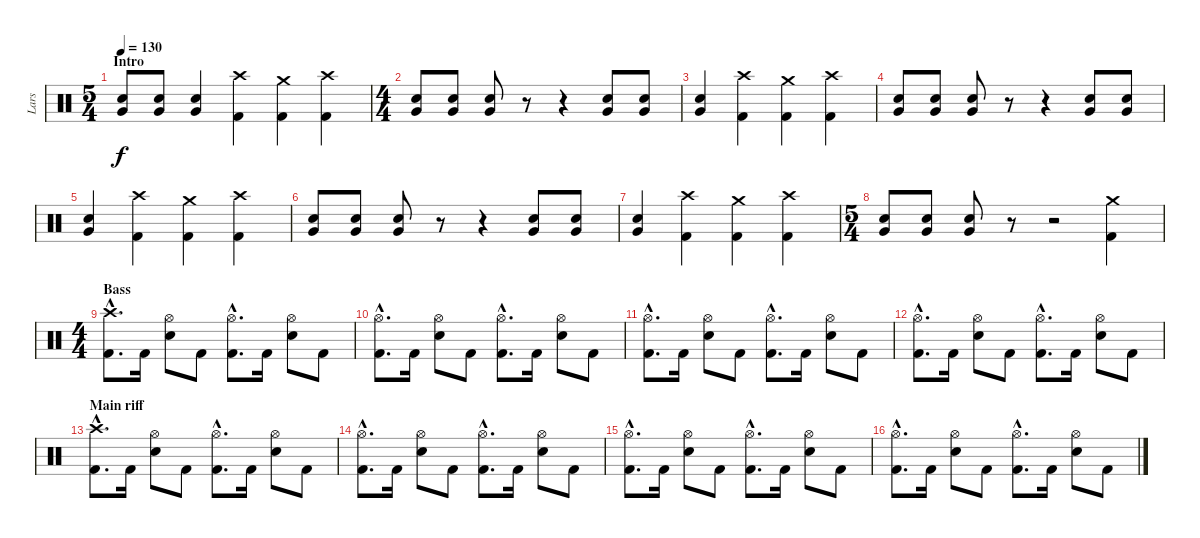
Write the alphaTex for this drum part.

\track ("Lars" "Lars") {instrument percussion}
\staff {score}
\articulation defaults
\ts (5 4)
\section ("" "Intro")
\tempo 130
\clef neutral
\ks c
("Electric Snare (hit)" "Very Low Tom (hit)").8{bu 120 dy f} ("Electric Snare (hit)" "Very Low Tom (hit)").8{bu 120} ("Electric Snare (hit)" "Very Low Tom (hit)").4 ("Kick (hit) 2" "Crash high (hit)").4 ("Kick (hit) 2" "Crash medium (hit)").4 ("Kick (hit) 2" "Crash high (hit)").4 |
\ts (4 4)
("Electric Snare (hit)" "Very Low Tom (hit)").8{bu 120} ("Electric Snare (hit)" "Very Low Tom (hit)").8{bu 120} ("Electric Snare (hit)" "Very Low Tom (hit)").8{bu 120} r.8 r.4 ("Electric Snare (hit)" "Very Low Tom (hit)").8{bu 120} ("Electric Snare (hit)" "Very Low Tom (hit)").8{bu 120} |
("Electric Snare (hit)" "Very Low Tom (hit)").4 ("Kick (hit) 2" "Crash high (hit)").4 ("Kick (hit) 2" "Crash medium (hit)").4 ("Kick (hit) 2" "Crash high (hit)").4 |
("Electric Snare (hit)" "Very Low Tom (hit)").8{bu 120} ("Electric Snare (hit)" "Very Low Tom (hit)").8{bu 120} ("Electric Snare (hit)" "Very Low Tom (hit)").8{bu 120} r.8 r.4 ("Electric Snare (hit)" "Very Low Tom (hit)").8{bu 120} ("Electric Snare (hit)" "Very Low Tom (hit)").8{bu 120} |
("Electric Snare (hit)" "Very Low Tom (hit)").4 ("Kick (hit) 2" "Crash high (hit)").4 ("Kick (hit) 2" "Crash medium (hit)").4 ("Kick (hit) 2" "Crash high (hit)").4 |
("Electric Snare (hit)" "Very Low Tom (hit)").8{bu 120} ("Electric Snare (hit)" "Very Low Tom (hit)").8{bu 120} ("Electric Snare (hit)" "Very Low Tom (hit)").8{bu 120} r.8 r.4 ("Electric Snare (hit)" "Very Low Tom (hit)").8{bu 120} ("Electric Snare (hit)" "Very Low Tom (hit)").8{bu 120} |
("Electric Snare (hit)" "Very Low Tom (hit)").4 ("Kick (hit) 2" "Crash high (hit)").4 ("Kick (hit) 2" "Crash medium (hit)").4 ("Kick (hit) 2" "Crash high (hit)").4 |
\ts (5 4)
("Electric Snare (hit)" "Very Low Tom (hit)").8{bu 120} ("Electric Snare (hit)" "Very Low Tom (hit)").8{bu 120} ("Electric Snare (hit)" "Very Low Tom (hit)").8{bu 120} r.8 r.2 ("Kick (hit) 2" "Crash medium (hit)").4 |
\ts (4 4)
\section ("" "Bass")
("Kick (hit) 2"{hac} "Crash high (hit)"{hac}).8{d} "Kick (hit) 2".16 ("Electric Snare (hit)" "Hi-Hat (open)").8 "Kick (hit) 2".8 ("Kick (hit) 2"{hac} "Hi-Hat (open)"{hac}).8{d} "Kick (hit) 2".16 ("Electric Snare (hit)" "Hi-Hat (open)").8 "Kick (hit) 2".8 |
("Kick (hit) 2"{hac} "Hi-Hat (open)"{hac}).8{d} "Kick (hit) 2".16 ("Electric Snare (hit)" "Hi-Hat (open)").8 "Kick (hit) 2".8 ("Kick (hit) 2"{hac} "Hi-Hat (open)"{hac}).8{d} "Kick (hit) 2".16 ("Electric Snare (hit)" "Hi-Hat (open)").8 "Kick (hit) 2".8 |
("Kick (hit) 2"{hac} "Hi-Hat (open)"{hac}).8{d} "Kick (hit) 2".16 ("Electric Snare (hit)" "Hi-Hat (open)").8 "Kick (hit) 2".8 ("Kick (hit) 2"{hac} "Hi-Hat (open)"{hac}).8{d} "Kick (hit) 2".16 ("Electric Snare (hit)" "Hi-Hat (open)").8 "Kick (hit) 2".8 |
("Kick (hit) 2"{hac} "Hi-Hat (open)"{hac}).8{d} "Kick (hit) 2".16 ("Electric Snare (hit)" "Hi-Hat (open)").8 "Kick (hit) 2".8 ("Kick (hit) 2"{hac} "Hi-Hat (open)"{hac}).8{d} "Kick (hit) 2".16 ("Electric Snare (hit)" "Hi-Hat (open)").8 "Kick (hit) 2".8 |
\section ("" "Main riff")
("Kick (hit) 2"{hac} "Crash high (hit)"{hac}).8{d} "Kick (hit) 2".16 ("Electric Snare (hit)" "Hi-Hat (open)").8 "Kick (hit) 2".8 ("Kick (hit) 2"{hac} "Hi-Hat (open)"{hac}).8{d} "Kick (hit) 2".16 ("Electric Snare (hit)" "Hi-Hat (open)").8 "Kick (hit) 2".8 |
("Kick (hit) 2"{hac} "Hi-Hat (open)"{hac}).8{d} "Kick (hit) 2".16 ("Electric Snare (hit)" "Hi-Hat (open)").8 "Kick (hit) 2".8 ("Kick (hit) 2"{hac} "Hi-Hat (open)"{hac}).8{d} "Kick (hit) 2".16 ("Electric Snare (hit)" "Hi-Hat (open)").8 "Kick (hit) 2".8 |
("Kick (hit) 2"{hac} "Hi-Hat (open)"{hac}).8{d} "Kick (hit) 2".16 ("Electric Snare (hit)" "Hi-Hat (open)").8 "Kick (hit) 2".8 ("Kick (hit) 2"{hac} "Hi-Hat (open)"{hac}).8{d} "Kick (hit) 2".16 ("Electric Snare (hit)" "Hi-Hat (open)").8 "Kick (hit) 2".8 |
("Kick (hit) 2"{hac} "Hi-Hat (open)"{hac}).8{d} "Kick (hit) 2".16 ("Electric Snare (hit)" "Hi-Hat (open)").8 "Kick (hit) 2".8 ("Kick (hit) 2"{hac} "Hi-Hat (open)"{hac}).8{d} "Kick (hit) 2".16 ("Electric Snare (hit)" "Hi-Hat (open)").8 "Kick (hit) 2".8
